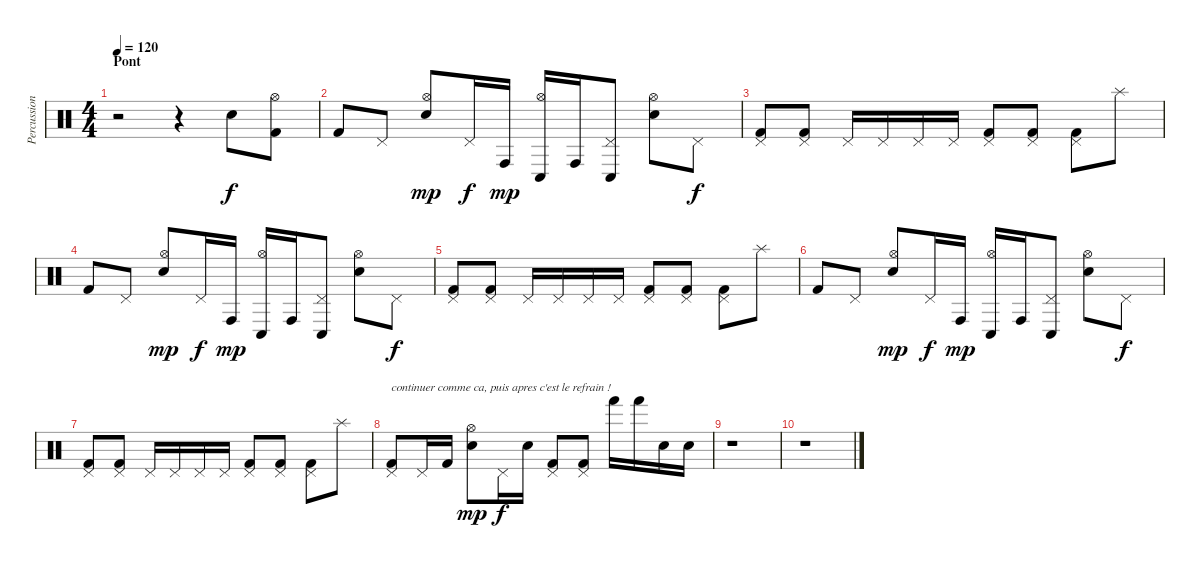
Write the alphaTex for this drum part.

\track ("Percussions" "Percussion") {instrument percussion}
\staff {score}
\articulation defaults
\ts (4 4)
\section ("" "Pont")
\tempo 120
\clef neutral
\ks c
r.2{dy f} r.4 "Electric Snare (hit)".8 ("Hi-Hat (open)" "Kick (hit) 2").8 |
"Kick (hit) 2".8 "Pedal Hi-Hat (hit)".8 ("Hi-Hat (open)" "Electric Snare (hit)").8{dy mp} "Pedal Hi-Hat (hit)".16{dy f} "Conga high (hit)".16{dy mp} ("Hi-Hat (open)" "Conga low (hit)").16 "Conga high (hit)".16 ("Pedal Hi-Hat (hit)" "Conga low (hit)").8 ("Hi-Hat (open)" "Electric Snare (hit)").8 "Pedal Hi-Hat (hit)".8{dy f} |
("Pedal Hi-Hat (hit)" "Kick (hit) 2").8 ("Pedal Hi-Hat (hit)" "Kick (hit) 2").8 "Pedal Hi-Hat (hit)".16 "Pedal Hi-Hat (hit)".16 "Pedal Hi-Hat (hit)".16 "Pedal Hi-Hat (hit)".16 ("Pedal Hi-Hat (hit)" "Kick (hit) 2").8 ("Pedal Hi-Hat (hit)" "Kick (hit) 2").8 ("Pedal Hi-Hat (hit)" "Kick (hit) 2").8 "Splash (hit)".8 |
"Kick (hit) 2".8 "Pedal Hi-Hat (hit)".8 ("Hi-Hat (open)" "Electric Snare (hit)").8{dy mp} "Pedal Hi-Hat (hit)".16{dy f} "Conga high (hit)".16{dy mp} ("Hi-Hat (open)" "Conga low (hit)").16 "Conga high (hit)".16 ("Pedal Hi-Hat (hit)" "Conga low (hit)").8 ("Hi-Hat (open)" "Electric Snare (hit)").8 "Pedal Hi-Hat (hit)".8{dy f} |
("Pedal Hi-Hat (hit)" "Kick (hit) 2").8 ("Pedal Hi-Hat (hit)" "Kick (hit) 2").8 "Pedal Hi-Hat (hit)".16 "Pedal Hi-Hat (hit)".16 "Pedal Hi-Hat (hit)".16 "Pedal Hi-Hat (hit)".16 ("Pedal Hi-Hat (hit)" "Kick (hit) 2").8 ("Pedal Hi-Hat (hit)" "Kick (hit) 2").8 ("Pedal Hi-Hat (hit)" "Kick (hit) 2").8 "Splash (hit)".8 |
"Kick (hit) 2".8 "Pedal Hi-Hat (hit)".8 ("Hi-Hat (open)" "Electric Snare (hit)").8{dy mp} "Pedal Hi-Hat (hit)".16{dy f} "Conga high (hit)".16{dy mp} ("Hi-Hat (open)" "Conga low (hit)").16 "Conga high (hit)".16 ("Pedal Hi-Hat (hit)" "Conga low (hit)").8 ("Hi-Hat (open)" "Electric Snare (hit)").8 "Pedal Hi-Hat (hit)".8{dy f} |
("Pedal Hi-Hat (hit)" "Kick (hit) 2").8 ("Pedal Hi-Hat (hit)" "Kick (hit) 2").8 "Pedal Hi-Hat (hit)".16 "Pedal Hi-Hat (hit)".16 "Pedal Hi-Hat (hit)".16 "Pedal Hi-Hat (hit)".16 ("Pedal Hi-Hat (hit)" "Kick (hit) 2").8 ("Pedal Hi-Hat (hit)" "Kick (hit) 2").8 ("Pedal Hi-Hat (hit)" "Kick (hit) 2").8 "Splash (hit)".8 |
("Pedal Hi-Hat (hit)" "Kick (hit) 2").8{txt "continuer comme ca, puis apres c'est le refrain !"} "Pedal Hi-Hat (hit)".16 "Kick (hit) 2".16 ("Hi-Hat (open)" "Electric Snare (hit)").8{dy mp} "Pedal Hi-Hat (hit)".16{dy f} "Electric Snare (hit)".16 ("Pedal Hi-Hat (hit)" "Kick (hit) 2").8 ("Pedal Hi-Hat (hit)" "Kick (hit) 2").8 "Hand (hit)".16 "Hand (hit)".16 "Electric Snare (hit)".16 "Electric Snare (hit)".16 |
r.1 |
r.1
